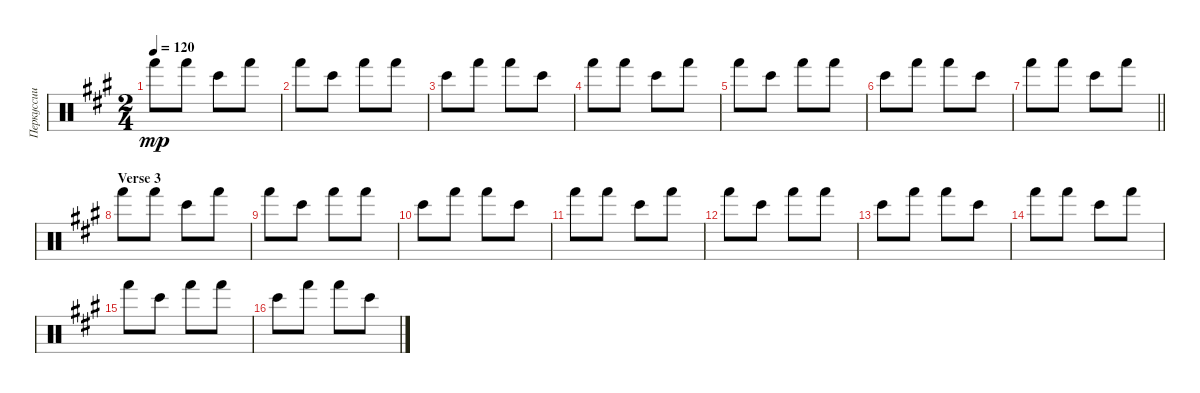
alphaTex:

\track ("Перкуссии" "Перкуссии") {instrument percussion}
\staff {score}
\articulation defaults
\ts (2 4)
\tempo 120
\clef neutral
\ks f#minor "Hand (hit)".8{dy mp} "Hand (hit)".8 "Bongo High (hit)".8 "Hand (hit)".8
|
"Hand (hit)".8 "Bongo High (hit)".8 "Hand (hit)".8 "Hand (hit)".8 |
"Bongo High (hit)".8 "Hand (hit)".8 "Hand (hit)".8 "Bongo High (hit)".8 |
"Hand (hit)".8 "Hand (hit)".8 "Bongo High (hit)".8 "Hand (hit)".8 |
"Hand (hit)".8 "Bongo High (hit)".8 "Hand (hit)".8 "Hand (hit)".8 |
"Bongo High (hit)".8 "Hand (hit)".8 "Hand (hit)".8 "Bongo High (hit)".8 |
\barLineRight lightlight "Hand (hit)".8 "Hand (hit)".8 "Bongo High (hit)".8 "Hand (hit)".8
|
\section ("" "Verse 3")
"Hand (hit)".8 "Hand (hit)".8 "Bongo High (hit)".8 "Hand (hit)".8 |
"Hand (hit)".8 "Bongo High (hit)".8 "Hand (hit)".8 "Hand (hit)".8 |
"Bongo High (hit)".8 "Hand (hit)".8 "Hand (hit)".8 "Bongo High (hit)".8 |
"Hand (hit)".8 "Hand (hit)".8 "Bongo High (hit)".8 "Hand (hit)".8 |
"Hand (hit)".8 "Bongo High (hit)".8 "Hand (hit)".8 "Hand (hit)".8 |
"Bongo High (hit)".8 "Hand (hit)".8 "Hand (hit)".8 "Bongo High (hit)".8 |
"Hand (hit)".8 "Hand (hit)".8 "Bongo High (hit)".8 "Hand (hit)".8 |
"Hand (hit)".8 "Bongo High (hit)".8 "Hand (hit)".8 "Hand (hit)".8 |
"Bongo High (hit)".8 "Hand (hit)".8 "Hand (hit)".8 "Bongo High (hit)".8
